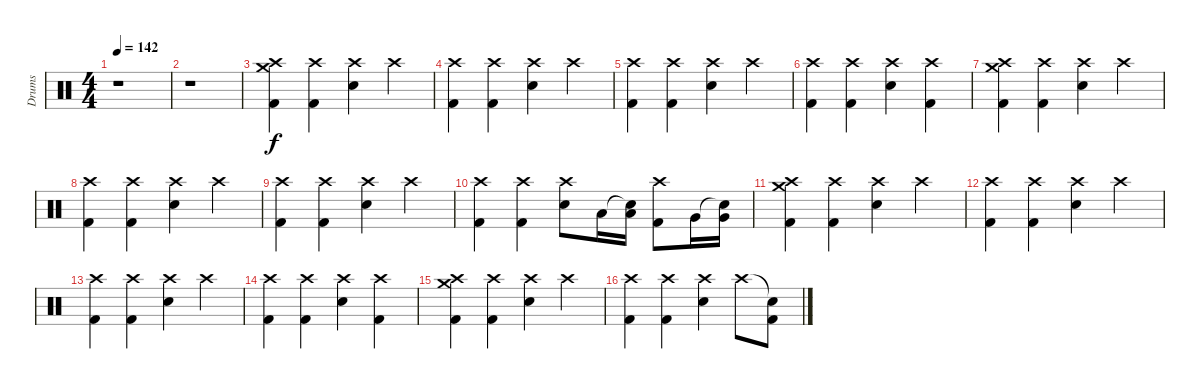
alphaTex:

\track ("Drums" "Drums") {instrument percussion}
\staff {score}
\articulation defaults
\ts (4 4)
\tempo 142
\clef neutral
\ks c
r.1{dy f} |
r.1 |
("Crash high (hit)" "Crash medium (hit)" "Kick (hit) 2").4 ("Crash high (hit)" "Kick (hit) 2").4 ("Crash high (hit)" "Snare (hit) 2").4 "Crash high (hit)".4 |
("Crash high (hit)" "Kick (hit) 2").4 ("Crash high (hit)" "Kick (hit) 2").4 ("Crash high (hit)" "Snare (hit) 2").4 "Crash high (hit)".4 |
("Crash high (hit)" "Kick (hit) 2").4 ("Crash high (hit)" "Kick (hit) 2").4 ("Crash high (hit)" "Snare (hit) 2").4 "Crash high (hit)".4 |
("Crash high (hit)" "Kick (hit) 2").4 ("Crash high (hit)" "Kick (hit) 2").4 ("Crash high (hit)" "Snare (hit) 2").4 ("Crash high (hit)" "Kick (hit) 2").4 |
("Crash high (hit)" "Crash medium (hit)" "Kick (hit) 2").4 ("Crash high (hit)" "Kick (hit) 2").4 ("Crash high (hit)" "Snare (hit) 2").4 "Crash high (hit)".4 |
("Crash high (hit)" "Kick (hit) 2").4 ("Crash high (hit)" "Kick (hit) 2").4 ("Crash high (hit)" "Snare (hit) 2").4 "Crash high (hit)".4 |
("Crash high (hit)" "Kick (hit) 2").4 ("Crash high (hit)" "Kick (hit) 2").4 ("Crash high (hit)" "Snare (hit) 2").4 "Crash high (hit)".4 |
("Crash high (hit)" "Kick (hit) 2").4 ("Crash high (hit)" "Kick (hit) 2").4 ("Crash high (hit)" "Snare (hit) 2").8 "Low Tom (hit)".16 ("Snare (hit)"{t} "Low Tom (hit)").16 ("Crash high (hit)" "Kick (hit) 2").8 "Very Low Tom (hit)".16 ("Snare (hit)"{t} "Very Low Tom (hit)").16 |
("Crash high (hit)" "Crash medium (hit)" "Kick (hit) 2").4 ("Crash high (hit)" "Kick (hit) 2").4 ("Crash high (hit)" "Snare (hit) 2").4 "Crash high (hit)".4 |
("Crash high (hit)" "Kick (hit) 2").4 ("Crash high (hit)" "Kick (hit) 2").4 ("Crash high (hit)" "Snare (hit) 2").4 "Crash high (hit)".4 |
("Crash high (hit)" "Kick (hit) 2").4 ("Crash high (hit)" "Kick (hit) 2").4 ("Crash high (hit)" "Snare (hit) 2").4 "Crash high (hit)".4 |
("Crash high (hit)" "Kick (hit) 2").4 ("Crash high (hit)" "Kick (hit) 2").4 ("Crash high (hit)" "Snare (hit) 2").4 ("Crash high (hit)" "Kick (hit) 2").4 |
("Crash high (hit)" "Crash medium (hit)" "Kick (hit) 2").4 ("Crash high (hit)" "Kick (hit) 2").4 ("Crash high (hit)" "Snare (hit) 2").4 "Crash high (hit)".4 |
("Crash high (hit)" "Kick (hit) 2").4 ("Crash high (hit)" "Kick (hit) 2").4 ("Crash high (hit)" "Snare (hit) 2").4 "Crash high (hit)".8 ("Snare (hit)"{t} "Kick (hit) 2").8
